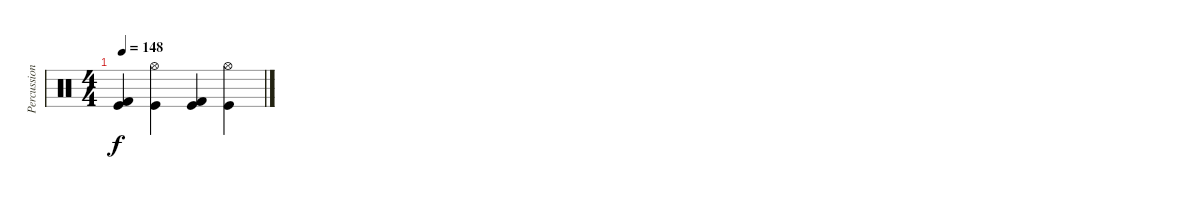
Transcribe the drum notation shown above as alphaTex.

\track ("Percussion" "Percussion") {instrument percussion}
\staff {score}
\articulation defaults
\ts (4 4)
\tempo 148
\clef neutral
\ks c
("Kick (hit) 2" "Kick (hit)").4{dy f} ("Hi-Hat (open)" "Kick (hit)").4 ("Kick (hit) 2" "Kick (hit)").4 ("Hi-Hat (open)" "Kick (hit)").4
